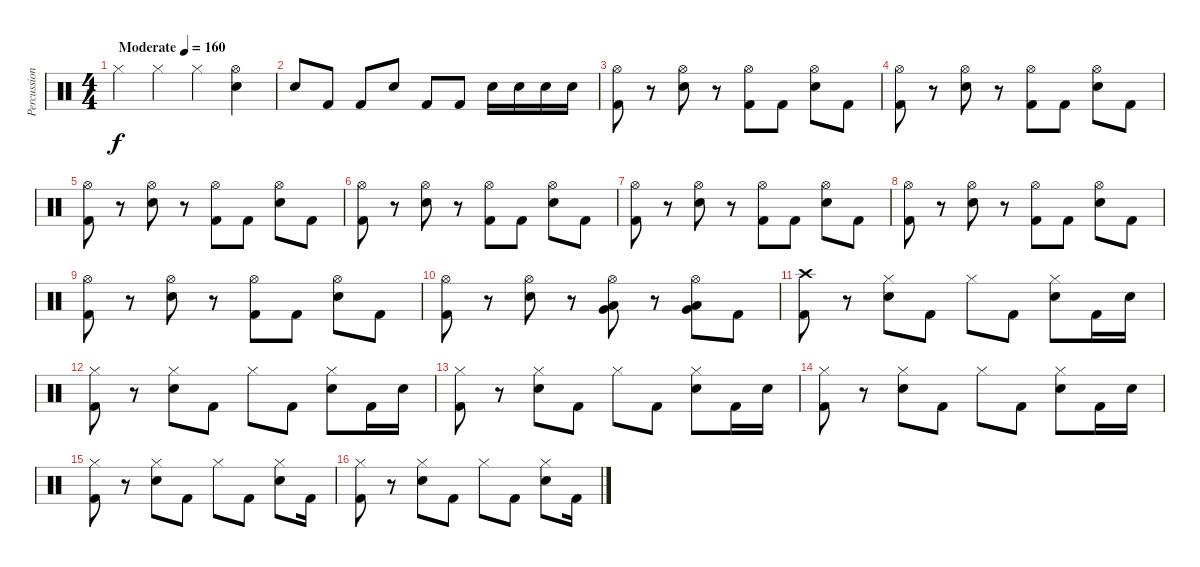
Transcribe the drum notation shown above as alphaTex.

\track ("Percussion" "Percussion") {instrument percussion}
\staff {score}
\articulation defaults
\ts (4 4)
\tempo (160 "Moderate")
\clef neutral
\ks c "Hi-Hat (closed)".4{dy f} "Hi-Hat (closed)".4 "Hi-Hat (closed)".4
("Hi-Hat (open)" "Electric Snare (hit)").4 |
"Electric Snare (hit)".8 "Kick (hit) 2".8 "Kick (hit) 2".8 "Electric Snare (hit)".8 "Kick (hit) 2".8 "Kick (hit) 2".8 "Electric Snare (hit)".16 "Electric Snare (hit)".16 "Electric Snare (hit)".16 "Electric Snare (hit)".16 |
("Hi-Hat (open)" "Kick (hit) 2").8 r.8 ("Hi-Hat (open)" "Electric Snare (hit)").8 r.8 ("Hi-Hat (open)" "Kick (hit) 2").8 "Kick (hit) 2".8 ("Hi-Hat (open)" "Electric Snare (hit)").8 "Kick (hit) 2".8 |
("Hi-Hat (open)" "Kick (hit) 2").8 r.8 ("Hi-Hat (open)" "Electric Snare (hit)").8 r.8 ("Hi-Hat (open)" "Kick (hit) 2").8 "Kick (hit) 2".8 ("Hi-Hat (open)" "Electric Snare (hit)").8 "Kick (hit) 2".8 |
("Hi-Hat (open)" "Kick (hit) 2").8 r.8 ("Hi-Hat (open)" "Electric Snare (hit)").8 r.8 ("Hi-Hat (open)" "Kick (hit) 2").8 "Kick (hit) 2".8 ("Hi-Hat (open)" "Electric Snare (hit)").8 "Kick (hit) 2".8 |
("Hi-Hat (open)" "Kick (hit) 2").8 r.8 ("Hi-Hat (open)" "Electric Snare (hit)").8 r.8 ("Hi-Hat (open)" "Kick (hit) 2").8 "Kick (hit) 2".8 ("Hi-Hat (open)" "Electric Snare (hit)").8 "Kick (hit) 2".8 |
("Hi-Hat (open)" "Kick (hit) 2").8 r.8 ("Hi-Hat (open)" "Electric Snare (hit)").8 r.8 ("Hi-Hat (open)" "Kick (hit) 2").8 "Kick (hit) 2".8 ("Hi-Hat (open)" "Electric Snare (hit)").8 "Kick (hit) 2".8 |
("Hi-Hat (open)" "Kick (hit) 2").8 r.8 ("Hi-Hat (open)" "Electric Snare (hit)").8 r.8 ("Hi-Hat (open)" "Kick (hit) 2").8 "Kick (hit) 2".8 ("Hi-Hat (open)" "Electric Snare (hit)").8 "Kick (hit) 2".8 |
("Hi-Hat (open)" "Kick (hit) 2").8 r.8 ("Hi-Hat (open)" "Electric Snare (hit)").8 r.8 ("Hi-Hat (open)" "Kick (hit) 2").8 "Kick (hit) 2".8 ("Hi-Hat (open)" "Electric Snare (hit)").8 "Kick (hit) 2".8 |
("Hi-Hat (open)" "Kick (hit) 2").8 r.8 ("Hi-Hat (open)" "Electric Snare (hit)").8 r.8 ("Hi-Hat (open)" "Very Low Tom (hit)" "Low Floor Tom (hit)").8 r.8 ("Hi-Hat (open)" "Very Low Tom (hit)" "Low Floor Tom (hit)").8 "Kick (hit) 2".8 |
("Crash high (hit)" "Kick (hit) 2").8 r.8 ("Hi-Hat (closed)" "Electric Snare (hit)").8 "Kick (hit) 2".8 "Hi-Hat (closed)".8 "Kick (hit) 2".8 ("Hi-Hat (closed)" "Electric Snare (hit)").8 "Kick (hit) 2".16 "Electric Snare (hit)".16 |
("Hi-Hat (closed)" "Kick (hit) 2").8 r.8 ("Hi-Hat (closed)" "Electric Snare (hit)").8 "Kick (hit) 2".8 "Hi-Hat (closed)".8 "Kick (hit) 2".8 ("Hi-Hat (closed)" "Electric Snare (hit)").8 "Kick (hit) 2".16 "Electric Snare (hit)".16 |
("Hi-Hat (closed)" "Kick (hit) 2").8 r.8 ("Hi-Hat (closed)" "Electric Snare (hit)").8 "Kick (hit) 2".8 "Hi-Hat (closed)".8 "Kick (hit) 2".8 ("Hi-Hat (closed)" "Electric Snare (hit)").8 "Kick (hit) 2".16 "Electric Snare (hit)".16 |
("Hi-Hat (closed)" "Kick (hit) 2").8 r.8 ("Hi-Hat (closed)" "Electric Snare (hit)").8 "Kick (hit) 2".8 "Hi-Hat (closed)".8 "Kick (hit) 2".8 ("Hi-Hat (closed)" "Electric Snare (hit)").8 "Kick (hit) 2".16 "Electric Snare (hit)".16 |
("Hi-Hat (closed)" "Kick (hit) 2").8 r.8 ("Hi-Hat (closed)" "Electric Snare (hit)").8 "Kick (hit) 2".8 "Hi-Hat (closed)".8 "Kick (hit) 2".8 ("Hi-Hat (closed)" "Electric Snare (hit)").8 "Kick (hit) 2".16 |
("Hi-Hat (closed)" "Kick (hit) 2").8 r.8 ("Hi-Hat (closed)" "Electric Snare (hit)").8 "Kick (hit) 2".8 "Hi-Hat (closed)".8 "Kick (hit) 2".8 ("Hi-Hat (closed)" "Electric Snare (hit)").8 "Kick (hit) 2".16
